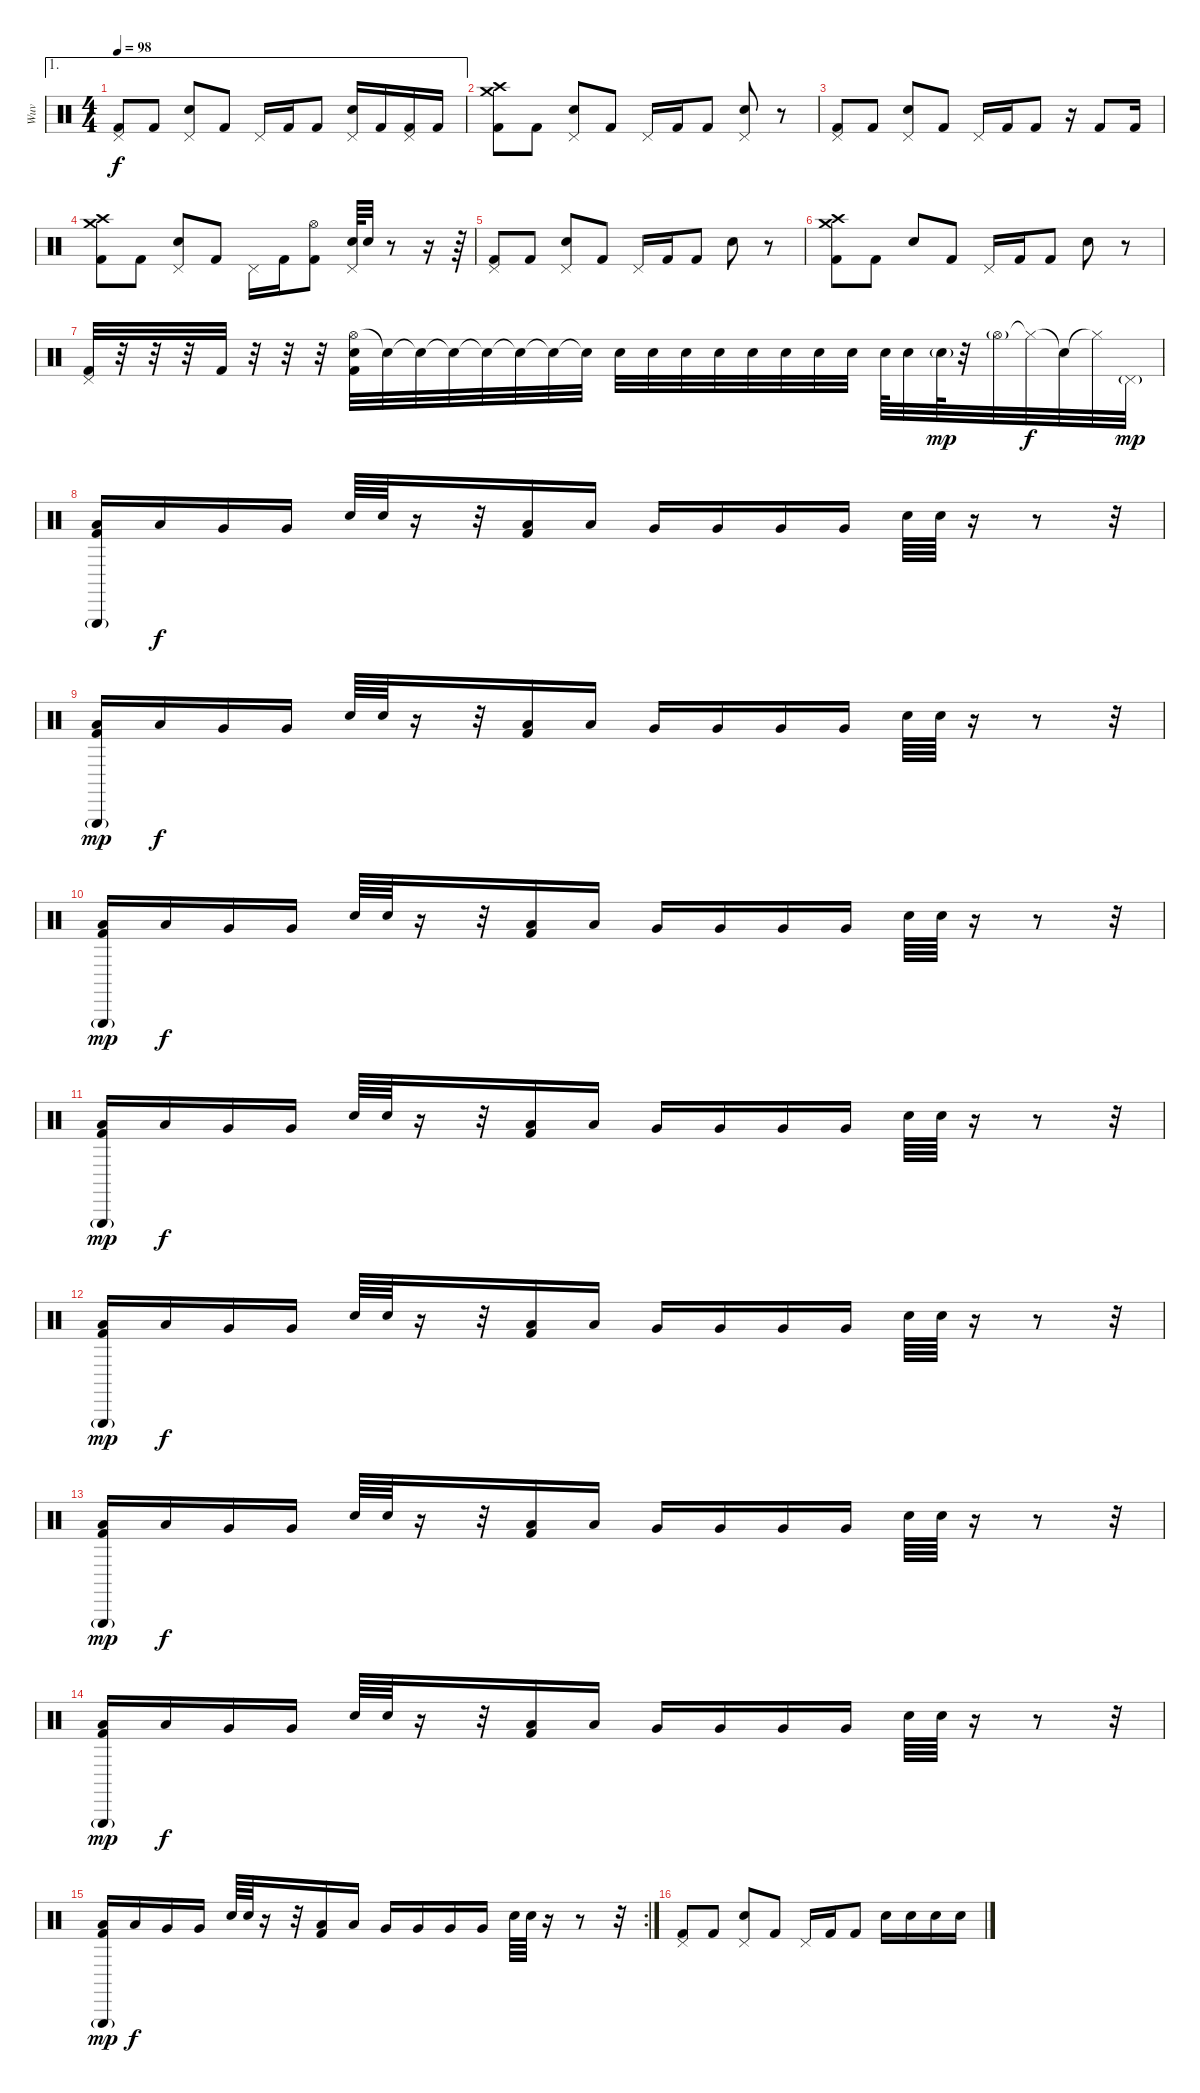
\track ("Wuv" "Wuv") {instrument percussion}
\staff {score}
\articulation defaults
\ae 1
\ts (4 4)
\tempo 98
\clef neutral
\ks c
("Pedal Hi-Hat (hit)" "Kick (hit) 2").8{dy f} "Kick (hit) 2".8 ("Pedal Hi-Hat (hit)" "Electric Snare (hit)").8 "Kick (hit) 2".8 "Pedal Hi-Hat (hit)".16 "Kick (hit) 2".16 "Kick (hit) 2".8 ("Pedal Hi-Hat (hit)" "Electric Snare (hit)").16 "Kick (hit) 2".16 ("Pedal Hi-Hat (hit)" "Kick (hit) 2").16 "Kick (hit) 2".16 |
("Crash high (hit)" "Crash medium (hit)" "Kick (hit) 2").8 "Kick (hit) 2".8 ("Pedal Hi-Hat (hit)" "Electric Snare (hit)").8 "Kick (hit) 2".8 "Pedal Hi-Hat (hit)".16 "Kick (hit) 2".16 "Kick (hit) 2".8 ("Pedal Hi-Hat (hit)" "Electric Snare (hit)").8 r.8 |
("Pedal Hi-Hat (hit)" "Kick (hit) 2").8 "Kick (hit) 2".8 ("Pedal Hi-Hat (hit)" "Electric Snare (hit)").8 "Kick (hit) 2".8 "Pedal Hi-Hat (hit)".16 "Kick (hit) 2".16 "Kick (hit) 2".8 r.16 "Kick (hit) 2".8 "Kick (hit) 2".16 |
("Crash high (hit)" "Crash medium (hit)" "Kick (hit) 2").8 "Kick (hit) 2".8 ("Pedal Hi-Hat (hit)" "Electric Snare (hit)").8 "Kick (hit) 2".8 "Pedal Hi-Hat (hit)".16 "Kick (hit) 2".16 ("Hi-Hat (open)" "Kick (hit) 2").8 ("Pedal Hi-Hat (hit)" "Electric Snare (hit)").64 "Electric Snare (hit)".32 r.8 r.16 r.64 |
("Pedal Hi-Hat (hit)" "Kick (hit) 2").8 "Kick (hit) 2".8 ("Pedal Hi-Hat (hit)" "Electric Snare (hit)").8 "Kick (hit) 2".8 "Pedal Hi-Hat (hit)".16 "Kick (hit) 2".16 "Kick (hit) 2".8 "Electric Snare (hit)".8 r.8 |
("Crash high (hit)" "Crash medium (hit)" "Kick (hit) 2").8 "Kick (hit) 2".8 "Electric Snare (hit)".8 "Kick (hit) 2".8 "Pedal Hi-Hat (hit)".16 "Kick (hit) 2".16 "Kick (hit) 2".8 "Electric Snare (hit)".8 r.8 |
("Pedal Hi-Hat (hit)" "Kick (hit) 2").32 r.32 r.32 r.32 "Kick (hit) 2".32 r.32 r.32 r.32 ("Hi-Hat (open)" "Electric Snare (hit)" "Kick (hit) 2").32 "Snare (hit)"{t}.32 "Snare (hit)"{t}.32 "Snare (hit)"{t}.32 "Snare (hit)"{t}.32 "Snare (hit)"{t}.32 "Snare (hit)"{t}.32 "Snare (hit)"{t}.32 "Snare (hit) 2".32{volume 4} "Snare (hit) 2".32{volume 8} "Snare (hit) 2".32 "Snare (hit) 2".32 "Snare (hit) 2".32 "Snare (hit) 2".32 "Snare (hit) 2".32 "Snare (hit) 2".32 "Electric Snare (hit)".64{volume 10} "Electric Snare (hit)".32 "Electric Snare (hit)"{g}.64{dy mp} r.32 "Hi-Hat (open)"{g}.32 "Hi-Hat (closed)"{t}.32{dy f} "Snare (hit)"{t}.32 "Hi-Hat (closed)"{t}.32 "Pedal Hi-Hat (hit)"{g}.32{dy mp} |
("Low Tom (hit)" "Triangle (hit)"{g} "Kick (hit) 2").16 "Low Tom (hit)".16{dy f} "Very Low Tom (hit)".16 "Very Low Tom (hit)".16 "Electric Snare (hit)".64 "Electric Snare (hit)".64 r.16 r.32 ("Low Tom (hit)" "Kick (hit) 2").16 "Low Tom (hit)".16 "Very Low Tom (hit)".16 "Very Low Tom (hit)".16 "Very Low Tom (hit)".16 "Very Low Tom (hit)".16 "Electric Snare (hit)".64 "Electric Snare (hit)".64 r.16 r.8 r.32 |
("Low Tom (hit)" "Triangle (hit)"{g} "Kick (hit) 2").16{dy mp} "Low Tom (hit)".16{dy f} "Very Low Tom (hit)".16 "Very Low Tom (hit)".16 "Electric Snare (hit)".64 "Electric Snare (hit)".64 r.16 r.32 ("Low Tom (hit)" "Kick (hit) 2").16 "Low Tom (hit)".16 "Very Low Tom (hit)".16 "Very Low Tom (hit)".16 "Very Low Tom (hit)".16 "Very Low Tom (hit)".16 "Electric Snare (hit)".64 "Electric Snare (hit)".64 r.16 r.8 r.32 |
("Low Tom (hit)" "Triangle (hit)"{g} "Kick (hit) 2").16{dy mp} "Low Tom (hit)".16{dy f} "Very Low Tom (hit)".16 "Very Low Tom (hit)".16 "Electric Snare (hit)".64 "Electric Snare (hit)".64 r.16 r.32 ("Low Tom (hit)" "Kick (hit) 2").16 "Low Tom (hit)".16 "Very Low Tom (hit)".16 "Very Low Tom (hit)".16 "Very Low Tom (hit)".16 "Very Low Tom (hit)".16 "Electric Snare (hit)".64 "Electric Snare (hit)".64 r.16 r.8 r.32 |
("Low Tom (hit)" "Triangle (hit)"{g} "Kick (hit) 2").16{dy mp} "Low Tom (hit)".16{dy f} "Very Low Tom (hit)".16 "Very Low Tom (hit)".16 "Electric Snare (hit)".64 "Electric Snare (hit)".64 r.16 r.32 ("Low Tom (hit)" "Kick (hit) 2").16 "Low Tom (hit)".16 "Very Low Tom (hit)".16 "Very Low Tom (hit)".16 "Very Low Tom (hit)".16 "Very Low Tom (hit)".16 "Electric Snare (hit)".64 "Electric Snare (hit)".64 r.16 r.8 r.32 |
("Low Tom (hit)" "Triangle (hit)"{g} "Kick (hit) 2").16{dy mp} "Low Tom (hit)".16{dy f} "Very Low Tom (hit)".16 "Very Low Tom (hit)".16 "Electric Snare (hit)".64 "Electric Snare (hit)".64 r.16 r.32 ("Low Tom (hit)" "Kick (hit) 2").16 "Low Tom (hit)".16 "Very Low Tom (hit)".16 "Very Low Tom (hit)".16 "Very Low Tom (hit)".16 "Very Low Tom (hit)".16 "Electric Snare (hit)".64 "Electric Snare (hit)".64 r.16 r.8 r.32 |
("Low Tom (hit)" "Triangle (hit)"{g} "Kick (hit) 2").16{dy mp} "Low Tom (hit)".16{dy f} "Very Low Tom (hit)".16 "Very Low Tom (hit)".16 "Electric Snare (hit)".64 "Electric Snare (hit)".64 r.16 r.32 ("Low Tom (hit)" "Kick (hit) 2").16 "Low Tom (hit)".16 "Very Low Tom (hit)".16 "Very Low Tom (hit)".16 "Very Low Tom (hit)".16 "Very Low Tom (hit)".16 "Electric Snare (hit)".64 "Electric Snare (hit)".64 r.16 r.8 r.32 |
("Low Tom (hit)" "Triangle (hit)"{g} "Kick (hit) 2").16{dy mp} "Low Tom (hit)".16{dy f} "Very Low Tom (hit)".16 "Very Low Tom (hit)".16 "Electric Snare (hit)".64 "Electric Snare (hit)".64 r.16 r.32 ("Low Tom (hit)" "Kick (hit) 2").16 "Low Tom (hit)".16 "Very Low Tom (hit)".16 "Very Low Tom (hit)".16 "Very Low Tom (hit)".16 "Very Low Tom (hit)".16 "Electric Snare (hit)".64 "Electric Snare (hit)".64 r.16 r.8 r.32 |
\rc 2
("Low Tom (hit)" "Triangle (hit)"{g} "Kick (hit) 2").16{dy mp} "Low Tom (hit)".16{dy f} "Very Low Tom (hit)".16 "Very Low Tom (hit)".16 "Electric Snare (hit)".64 "Electric Snare (hit)".64 r.16 r.32 ("Low Tom (hit)" "Kick (hit) 2").16 "Low Tom (hit)".16 "Very Low Tom (hit)".16 "Very Low Tom (hit)".16 "Very Low Tom (hit)".16 "Very Low Tom (hit)".16 "Electric Snare (hit)".64 "Electric Snare (hit)".64 r.16 r.8 r.32 |
("Pedal Hi-Hat (hit)" "Kick (hit) 2").8 "Kick (hit) 2".8 ("Pedal Hi-Hat (hit)" "Electric Snare (hit)").8 "Kick (hit) 2".8 "Pedal Hi-Hat (hit)".16 "Kick (hit) 2".16 "Kick (hit) 2".8 "Electric Snare (hit)".16 "Electric Snare (hit)".16 "Electric Snare (hit)".16 "Electric Snare (hit)".16
